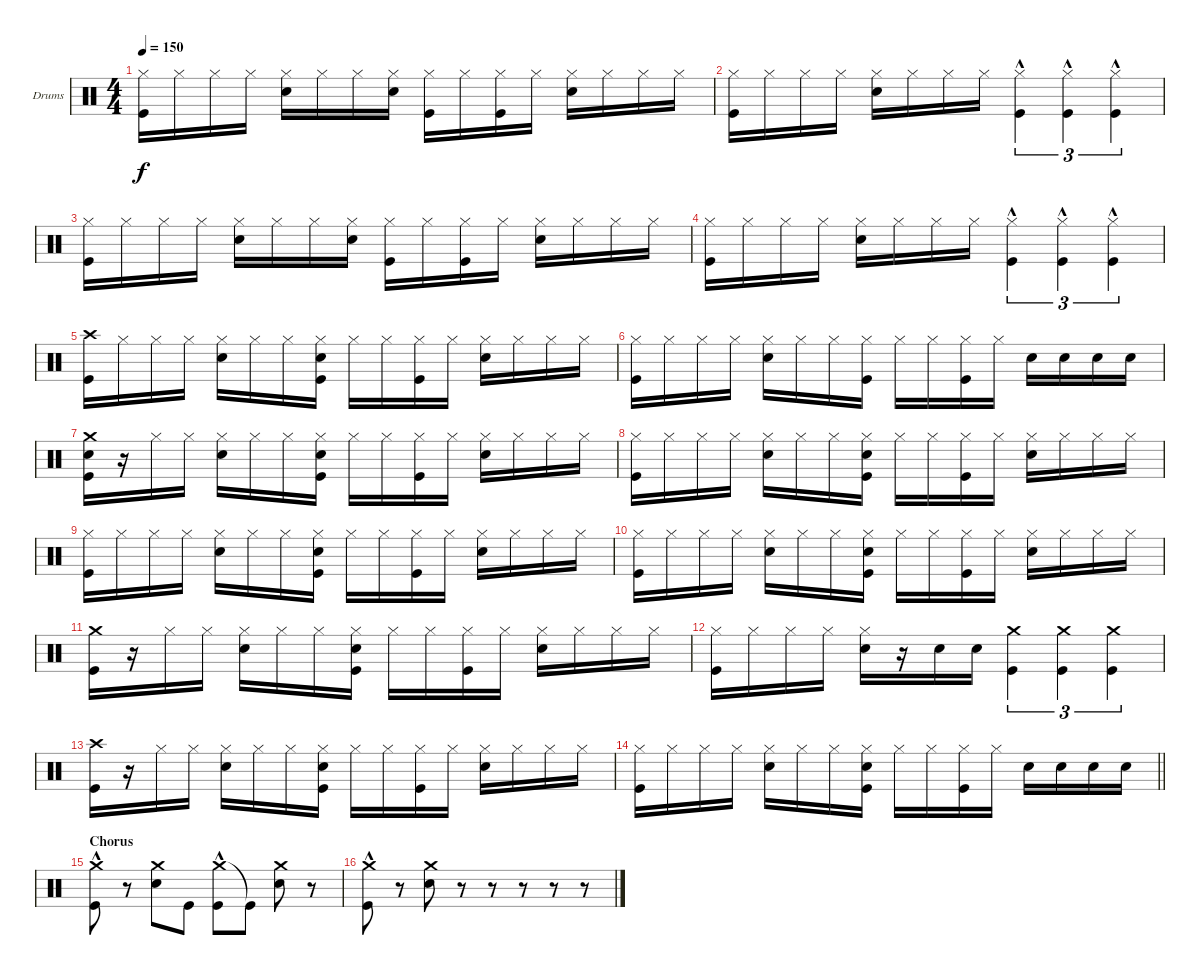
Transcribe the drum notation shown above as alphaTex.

\bracketExtendMode groupsimilarinstruments
\firstSystemTrackNameOrientation horizontal
\otherSystemsTrackNameOrientation horizontal
\track ("Drumkit" "Drums") {instrument percussion}
\staff {score}
\articulation defaults
\ts (4 4)
\tempo 150
\clef neutral
\ks c
("Hi-Hat (closed)" "Kick (hit)").16{dy f} "Hi-Hat (closed)".16 "Hi-Hat (closed)".16 "Hi-Hat (closed)".16 ("Hi-Hat (closed)" "Snare (hit) 2").16 "Hi-Hat (closed)".16 "Hi-Hat (closed)".16 ("Hi-Hat (closed)" "Snare (hit) 2").16 ("Hi-Hat (closed)" "Kick (hit)").16 "Hi-Hat (closed)".16 ("Hi-Hat (closed)" "Kick (hit)").16 "Hi-Hat (closed)".16 ("Hi-Hat (closed)" "Snare (hit) 2").16 "Hi-Hat (closed)".16 "Hi-Hat (closed)".16 "Hi-Hat (closed)".16 |
("Hi-Hat (closed)" "Kick (hit)").16 "Hi-Hat (closed)".16 "Hi-Hat (closed)".16 "Hi-Hat (closed)".16 ("Hi-Hat (closed)" "Snare (hit) 2").16 "Hi-Hat (closed)".16 "Hi-Hat (closed)".16 "Hi-Hat (closed)".16 ("Kick (hit)" "Hi-Hat (closed)"{hac}).4{tu (3 2)} ("Kick (hit)" "Hi-Hat (closed)"{hac}).4{tu (3 2)} ("Kick (hit)" "Hi-Hat (closed)"{hac}).4{tu (3 2)} |
("Hi-Hat (closed)" "Kick (hit)").16 "Hi-Hat (closed)".16 "Hi-Hat (closed)".16 "Hi-Hat (closed)".16 ("Hi-Hat (closed)" "Snare (hit) 2").16 "Hi-Hat (closed)".16 "Hi-Hat (closed)".16 ("Hi-Hat (closed)" "Snare (hit) 2").16 ("Hi-Hat (closed)" "Kick (hit)").16 "Hi-Hat (closed)".16 ("Hi-Hat (closed)" "Kick (hit)").16 "Hi-Hat (closed)".16 ("Hi-Hat (closed)" "Snare (hit) 2").16 "Hi-Hat (closed)".16 "Hi-Hat (closed)".16 "Hi-Hat (closed)".16 |
("Hi-Hat (closed)" "Kick (hit)").16 "Hi-Hat (closed)".16 "Hi-Hat (closed)".16 "Hi-Hat (closed)".16 ("Hi-Hat (closed)" "Snare (hit) 2").16 "Hi-Hat (closed)".16 "Hi-Hat (closed)".16 "Hi-Hat (closed)".16 ("Kick (hit)" "Hi-Hat (closed)"{hac}).4{tu (3 2)} ("Kick (hit)" "Hi-Hat (closed)"{hac}).4{tu (3 2)} ("Kick (hit)" "Hi-Hat (closed)"{hac}).4{tu (3 2)} |
("Crash high (hit)" "Kick (hit)").16 "Hi-Hat (closed)".16 "Hi-Hat (closed)".16 "Hi-Hat (closed)".16 ("Hi-Hat (closed)" "Snare (hit) 2").16 "Hi-Hat (closed)".16 "Hi-Hat (closed)".16 ("Hi-Hat (closed)" "Snare (hit) 2" "Kick (hit)").16 "Hi-Hat (closed)".16 "Hi-Hat (closed)".16 ("Hi-Hat (closed)" "Kick (hit)").16 "Hi-Hat (closed)".16 ("Hi-Hat (closed)" "Snare (hit) 2").16 "Hi-Hat (closed)".16 "Hi-Hat (closed)".16 "Hi-Hat (closed)".16 |
("Hi-Hat (closed)" "Kick (hit)").16 "Hi-Hat (closed)".16 "Hi-Hat (closed)".16 "Hi-Hat (closed)".16 ("Hi-Hat (closed)" "Snare (hit) 2").16 "Hi-Hat (closed)".16 "Hi-Hat (closed)".16 ("Hi-Hat (closed)" "Kick (hit)").16 "Hi-Hat (closed)".16 "Hi-Hat (closed)".16 ("Hi-Hat (closed)" "Kick (hit)").16 "Hi-Hat (closed)".16 "Snare (hit) 2".16 "Snare (hit) 2".16 "Snare (hit) 2".16 "Snare (hit) 2".16 |
("Crash medium (hit)" "Snare (hit) 2" "Kick (hit)").16 r.16 "Hi-Hat (closed)".16 "Hi-Hat (closed)".16 ("Hi-Hat (closed)" "Snare (hit) 2").16 "Hi-Hat (closed)".16 "Hi-Hat (closed)".16 ("Hi-Hat (closed)" "Snare (hit) 2" "Kick (hit)").16 "Hi-Hat (closed)".16 "Hi-Hat (closed)".16 ("Hi-Hat (closed)" "Kick (hit)").16 "Hi-Hat (closed)".16 ("Hi-Hat (closed)" "Snare (hit) 2").16 "Hi-Hat (closed)".16 "Hi-Hat (closed)".16 "Hi-Hat (closed)".16 |
("Hi-Hat (closed)" "Kick (hit)").16 "Hi-Hat (closed)".16 "Hi-Hat (closed)".16 "Hi-Hat (closed)".16 ("Hi-Hat (closed)" "Snare (hit) 2").16 "Hi-Hat (closed)".16 "Hi-Hat (closed)".16 ("Hi-Hat (closed)" "Snare (hit) 2" "Kick (hit)").16 "Hi-Hat (closed)".16 "Hi-Hat (closed)".16 ("Hi-Hat (closed)" "Kick (hit)").16 "Hi-Hat (closed)".16 ("Hi-Hat (closed)" "Snare (hit) 2").16 "Hi-Hat (closed)".16 "Hi-Hat (closed)".16 "Hi-Hat (closed)".16 |
("Hi-Hat (closed)" "Kick (hit)").16 "Hi-Hat (closed)".16 "Hi-Hat (closed)".16 "Hi-Hat (closed)".16 ("Hi-Hat (closed)" "Snare (hit) 2").16 "Hi-Hat (closed)".16 "Hi-Hat (closed)".16 ("Hi-Hat (closed)" "Snare (hit) 2" "Kick (hit)").16 "Hi-Hat (closed)".16 "Hi-Hat (closed)".16 ("Hi-Hat (closed)" "Kick (hit)").16 "Hi-Hat (closed)".16 ("Hi-Hat (closed)" "Snare (hit) 2").16 "Hi-Hat (closed)".16 "Hi-Hat (closed)".16 "Hi-Hat (closed)".16 |
("Hi-Hat (closed)" "Kick (hit)").16 "Hi-Hat (closed)".16 "Hi-Hat (closed)".16 "Hi-Hat (closed)".16 ("Hi-Hat (closed)" "Snare (hit) 2").16 "Hi-Hat (closed)".16 "Hi-Hat (closed)".16 ("Hi-Hat (closed)" "Snare (hit) 2" "Kick (hit)").16 "Hi-Hat (closed)".16 "Hi-Hat (closed)".16 ("Hi-Hat (closed)" "Kick (hit)").16 "Hi-Hat (closed)".16 ("Hi-Hat (closed)" "Snare (hit) 2").16 "Hi-Hat (closed)".16 "Hi-Hat (closed)".16 "Hi-Hat (closed)".16 |
("Crash medium (hit)" "Kick (hit)").16 r.16 "Hi-Hat (closed)".16 "Hi-Hat (closed)".16 ("Hi-Hat (closed)" "Snare (hit) 2").16 "Hi-Hat (closed)".16 "Hi-Hat (closed)".16 ("Hi-Hat (closed)" "Snare (hit) 2" "Kick (hit)").16 "Hi-Hat (closed)".16 "Hi-Hat (closed)".16 ("Hi-Hat (closed)" "Kick (hit)").16 "Hi-Hat (closed)".16 ("Hi-Hat (closed)" "Snare (hit) 2").16 "Hi-Hat (closed)".16 "Hi-Hat (closed)".16 "Hi-Hat (closed)".16 |
("Hi-Hat (closed)" "Kick (hit)").16 "Hi-Hat (closed)".16 "Hi-Hat (closed)".16 "Hi-Hat (closed)".16 ("Hi-Hat (closed)" "Snare (hit) 2").16 r.16 "Snare (hit) 2".16 "Snare (hit) 2".16 ("Kick (hit)" "Crash medium (hit)").4{tu (3 2)} ("Kick (hit)" "Crash medium (hit)").4{tu (3 2)} ("Kick (hit)" "Crash medium (hit)").4{tu (3 2)} |
("Crash high (hit)" "Kick (hit)").16 r.16 "Hi-Hat (closed)".16 "Hi-Hat (closed)".16 ("Hi-Hat (closed)" "Snare (hit) 2").16 "Hi-Hat (closed)".16 "Hi-Hat (closed)".16 ("Hi-Hat (closed)" "Snare (hit) 2" "Kick (hit)").16 "Hi-Hat (closed)".16 "Hi-Hat (closed)".16 ("Hi-Hat (closed)" "Kick (hit)").16 "Hi-Hat (closed)".16 ("Hi-Hat (closed)" "Snare (hit) 2").16 "Hi-Hat (closed)".16 "Hi-Hat (closed)".16 "Hi-Hat (closed)".16 |
\barLineRight lightlight
("Hi-Hat (closed)" "Kick (hit)").16 "Hi-Hat (closed)".16 "Hi-Hat (closed)".16 "Hi-Hat (closed)".16 ("Hi-Hat (closed)" "Snare (hit) 2").16 "Hi-Hat (closed)".16 "Hi-Hat (closed)".16 ("Hi-Hat (closed)" "Snare (hit) 2" "Kick (hit)").16 "Hi-Hat (closed)".16 "Hi-Hat (closed)".16 ("Hi-Hat (closed)" "Kick (hit)").16 "Hi-Hat (closed)".16 "Snare (hit) 2".16 "Snare (hit) 2".16 "Snare (hit) 2".16 "Snare (hit) 2".16 |
\section ("" "Chorus")
("Crash medium (hit)" "Kick (hit)"{hac}).8 r.8 ("Crash medium (hit)" "Snare (hit) 2").8 "Kick (hit)".8 ("Crash medium (hit)" "Kick (hit)"{hac}).8 "Kick (hit)"{t}.8 ("Crash medium (hit)" "Snare (hit) 2").8 r.8 |
("Crash medium (hit)" "Kick (hit)"{hac}).8 r.8 ("Crash medium (hit)" "Snare (hit) 2").8 r.8 r.8 r.8 r.8 r.8
